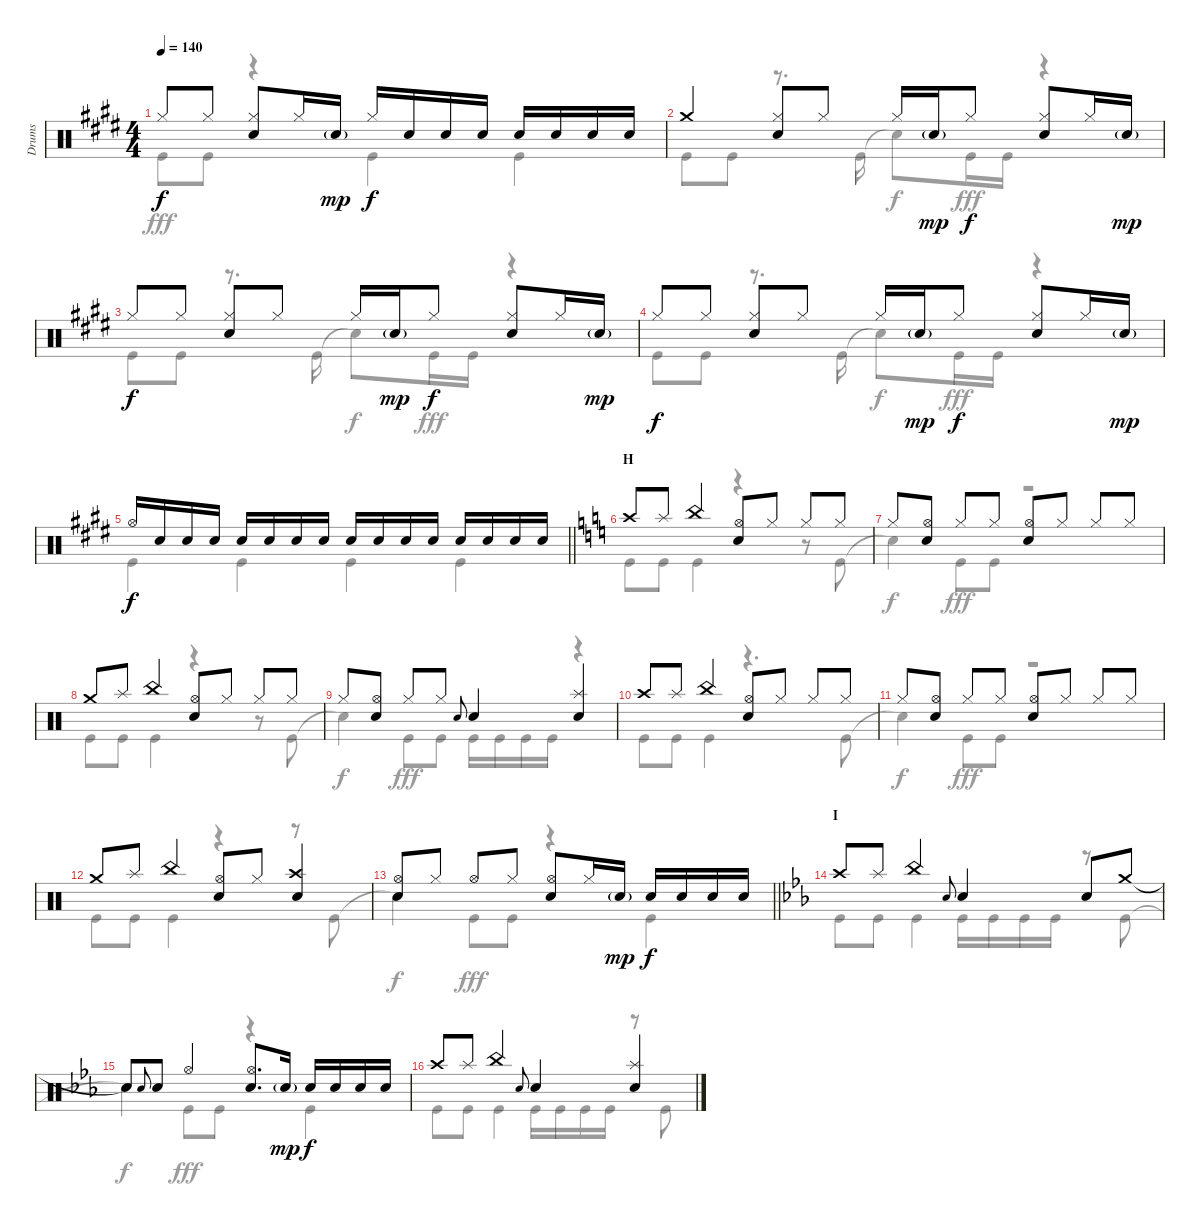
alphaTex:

\track ("Drums" "Drums") {instrument percussion}
\staff {score}
\articulation defaults
\voice
\ts (4 4)
\tempo 140
\clef neutral
\ks e "Hi-Hat (closed)".8{dy f} "Hi-Hat (closed)".8
("Hi-Hat (closed)" "Snare (hit) 2").8 "Hi-Hat (closed)".16 "Snare (hit) 2"{g}.16{dy mp} "Hi-Hat (closed)".16{dy f} "Snare (hit) 2".16 "Snare (hit) 2".16 "Snare (hit) 2".16 "Snare (hit) 2".16 "Snare (hit) 2".16 "Snare (hit) 2".16 "Snare (hit) 2".16 |
"Crash medium (hit)".4 ("Hi-Hat (closed)" "Snare (hit) 2").8 "Hi-Hat (closed)".8 "Hi-Hat (closed)".16 "Snare (hit) 2"{g}.16{dy mp} "Hi-Hat (closed)".8{dy f} ("Hi-Hat (closed)" "Snare (hit) 2").8 "Hi-Hat (closed)".16 "Snare (hit) 2"{g}.16{dy mp} |
"Hi-Hat (closed)".8{dy f} "Hi-Hat (closed)".8 ("Hi-Hat (closed)" "Snare (hit) 2").8 "Hi-Hat (closed)".8 "Hi-Hat (closed)".16 "Snare (hit) 2"{g}.16{dy mp} "Hi-Hat (closed)".8{dy f} ("Hi-Hat (closed)" "Snare (hit) 2").8 "Hi-Hat (closed)".16 "Snare (hit) 2"{g}.16{dy mp} |
"Hi-Hat (closed)".8{dy f} "Hi-Hat (closed)".8 ("Hi-Hat (closed)" "Snare (hit) 2").8 "Hi-Hat (closed)".8 "Hi-Hat (closed)".16 "Snare (hit) 2"{g}.16{dy mp} "Hi-Hat (closed)".8{dy f} ("Hi-Hat (closed)" "Snare (hit) 2").8 "Hi-Hat (closed)".16 "Snare (hit) 2"{g}.16{dy mp} |
\barLineRight lightlight "Hi-Hat (open)".16{dy f} "Snare (hit) 2".16 "Snare (hit) 2".16 "Snare (hit) 2".16 "Snare (hit) 2".16 "Snare (hit) 2".16 "Snare (hit) 2".16 "Snare (hit) 2".16 "Snare (hit) 2".16 "Snare (hit) 2".16 "Snare (hit) 2".16 "Snare (hit) 2".16 "Snare (hit) 2".16 "Snare (hit) 2".16 "Snare (hit) 2".16 "Snare (hit) 2".16
|
\section ("" "H")
\ks c "Crash high (hit)".8 "Splash (hit)".8 "China (hit)".4
("Hi-Hat (open)" "Snare (hit) 2").8 "Hi-Hat (closed)".8 "Hi-Hat (closed)".8 "Hi-Hat (closed)".8 |
"Hi-Hat (closed)".8 ("Hi-Hat (open)" "Snare (hit) 2").8 "Hi-Hat (closed)".8 "Hi-Hat (closed)".8 ("Hi-Hat (open)" "Snare (hit) 2").8 "Hi-Hat (closed)".8 "Hi-Hat (closed)".8 "Hi-Hat (closed)".8 |
"Crash medium (hit)".8 "Splash (hit)".8 "China (hit)".4 ("Hi-Hat (open)" "Snare (hit) 2").8 "Hi-Hat (closed)".8 "Hi-Hat (closed)".8 "Hi-Hat (closed)".8 |
"Hi-Hat (closed)".8 ("Hi-Hat (open)" "Snare (hit) 2").8 "Hi-Hat (closed)".8 "Hi-Hat (closed)".8 "Snare (hit) 2".8{gr onbeat} "Snare (hit) 2".4 ("Splash (hit)" "Snare (hit) 2").4 |
"Crash high (hit)".8 "Splash (hit)".8 "China (hit)".4 ("Hi-Hat (open)" "Snare (hit) 2").8 "Hi-Hat (closed)".8 "Hi-Hat (closed)".8 "Hi-Hat (closed)".8 |
"Hi-Hat (closed)".8 ("Hi-Hat (open)" "Snare (hit) 2").8 "Hi-Hat (closed)".8 "Hi-Hat (closed)".8 ("Hi-Hat (open)" "Snare (hit) 2").8 "Hi-Hat (closed)".8 "Hi-Hat (closed)".8 "Hi-Hat (closed)".8 |
"Crash medium (hit)".8 "Splash (hit)".8 "China (hit)".4 ("Hi-Hat (open)" "Snare (hit) 2").8 "Hi-Hat (closed)".8 ("Crash high (hit)" "Snare (hit) 2").4 |
\barLineRight lightlight
("Hi-Hat (open)" "Snare (hit) 2").8 "Hi-Hat (closed)".8 "Hi-Hat (open)".8 "Hi-Hat (closed)".8 ("Hi-Hat (open)" "Snare (hit) 2").8 "Hi-Hat (closed)".16 "Snare (hit) 2"{g}.16{dy mp} "Snare (hit) 2".16{dy f} "Snare (hit) 2".16 "Snare (hit) 2".16 "Snare (hit) 2".16 |
\section ("" "I")
\ks eb "Crash high (hit)".8 "Splash (hit)".8 "China (hit)".4 "Snare (hit) 2".8{gr onbeat} "Snare (hit) 2".4 "Snare (hit) 2".8 "Crash medium (hit)".8
|
"Snare (hit)"{t}.8 "Snare (hit) 2".8{gr onbeat} "Snare (hit) 2".8 "Hi-Hat (open)".4 ("Hi-Hat (open)" "Snare (hit) 2").8{d} "Snare (hit) 2"{g}.16{dy mp} "Snare (hit) 2".16{dy f} "Snare (hit) 2".16 "Snare (hit) 2".16 "Snare (hit) 2".16 |
"Crash high (hit)".8 "Splash (hit)".8 "China (hit)".4 "Snare (hit) 2".8{gr onbeat} "Snare (hit) 2".4 ("Splash (hit)" "Snare (hit) 2").4
\voice
\clef neutral
\ottava regular
\simile none
\ks e "Kick (hit)".8{dy fff} "Kick (hit)".8
r.4 "Kick (hit)".4 "Kick (hit)".4 |
"Kick (hit)".8 "Kick (hit)".8 r.8{d} "Kick (hit)".16 "Snare (hit)"{t}.8{dy f} "Kick (hit)".16{dy fff} "Kick (hit)".16 r.4 |
"Kick (hit)".8 "Kick (hit)".8 r.8{d} "Kick (hit)".16 "Snare (hit)"{t}.8{dy f} "Kick (hit)".16{dy fff} "Kick (hit)".16 r.4 |
"Kick (hit)".8 "Kick (hit)".8 r.8{d} "Kick (hit)".16 "Snare (hit)"{t}.8{dy f} "Kick (hit)".16{dy fff} "Kick (hit)".16 r.4 |
\barLineRight lightlight "Kick (hit)".4 "Kick (hit)".4 "Kick (hit)".4 "Kick (hit)".4
|
\ks c "Kick (hit)".8 "Kick (hit)".8 "Kick (hit)".4
r.4 r.8 "Kick (hit)".8 |
"Snare (hit)"{t}.4{dy f} "Kick (hit)".8{dy fff} "Kick (hit)".8 r.2 |
"Kick (hit)".8 "Kick (hit)".8 "Kick (hit)".4 r.4 r.8 "Kick (hit)".8 |
"Snare (hit)"{t}.4{dy f} "Kick (hit)".8{dy fff} "Kick (hit)".8 "Kick (hit)".16 "Kick (hit)".16 "Kick (hit)".16 "Kick (hit)".16 r.4 |
"Kick (hit)".8 "Kick (hit)".8 "Kick (hit)".4 r.4{d} "Kick (hit)".8 |
"Snare (hit)"{t}.4{dy f} "Kick (hit)".8{dy fff} "Kick (hit)".8 r.2 |
"Kick (hit)".8 "Kick (hit)".8 "Kick (hit)".4 r.4 r.8 "Kick (hit)".8 |
\barLineRight lightlight "Snare (hit)"{t}.4{dy f} "Kick (hit)".8{dy fff} "Kick (hit)".8
r.4 "Kick (hit)".4 |
\ks eb "Kick (hit)".8 "Kick (hit)".8 "Kick (hit)".4 "Kick (hit)".16 "Kick (hit)".16 "Kick (hit)".16 "Kick (hit)".16
r.8 "Kick (hit)".8 |
"Snare (hit)"{t}.4{dy f} "Kick (hit)".8{dy fff} "Kick (hit)".8 r.4 "Kick (hit)".4 |
"Kick (hit)".8 "Kick (hit)".8 "Kick (hit)".4 "Kick (hit)".16 "Kick (hit)".16 "Kick (hit)".16 "Kick (hit)".16 r.8 "Kick (hit)".8
